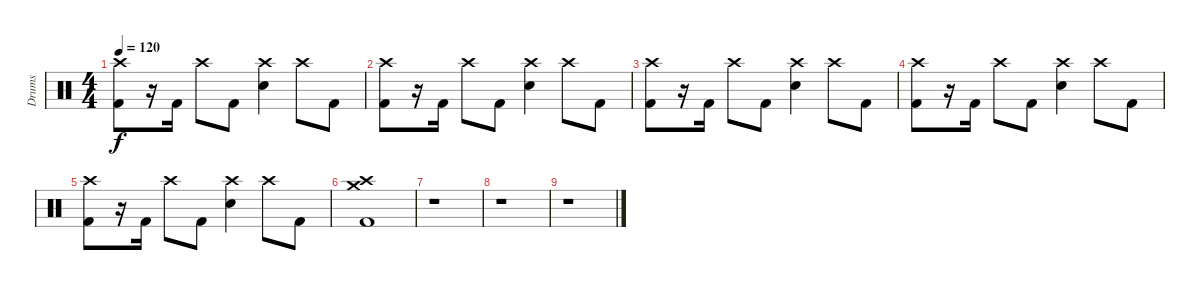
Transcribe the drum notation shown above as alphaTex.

\track ("Drums" "Drums") {instrument percussion}
\staff {score}
\articulation defaults
\ts (4 4)
\tempo 120
\clef neutral
\ks c
("Crash high (hit)" "Kick (hit) 2").8{dy f} r.16 "Kick (hit) 2".16 "Crash high (hit)".8 "Kick (hit) 2".8 ("Crash high (hit)" "Electric Snare (hit)").4 "Crash high (hit)".8 "Kick (hit) 2".8 |
("Crash high (hit)" "Kick (hit) 2").8 r.16 "Kick (hit) 2".16 "Crash high (hit)".8 "Kick (hit) 2".8 ("Crash high (hit)" "Electric Snare (hit)").4 "Crash high (hit)".8 "Kick (hit) 2".8 |
("Crash high (hit)" "Kick (hit) 2").8 r.16 "Kick (hit) 2".16 "Crash high (hit)".8 "Kick (hit) 2".8 ("Crash high (hit)" "Electric Snare (hit)").4 "Crash high (hit)".8 "Kick (hit) 2".8 |
("Crash high (hit)" "Kick (hit) 2").8 r.16 "Kick (hit) 2".16 "Crash high (hit)".8 "Kick (hit) 2".8 ("Crash high (hit)" "Electric Snare (hit)").4 "Crash high (hit)".8 "Kick (hit) 2".8 |
("Crash high (hit)" "Kick (hit) 2").8 r.16 "Kick (hit) 2".16 "Crash high (hit)".8 "Kick (hit) 2".8 ("Crash high (hit)" "Electric Snare (hit)").4 "Crash high (hit)".8 "Kick (hit) 2".8 |
("Crash high (hit)" "Crash medium (hit)" "Kick (hit) 2").1 |
r.1 |
r.1 |
r.1
